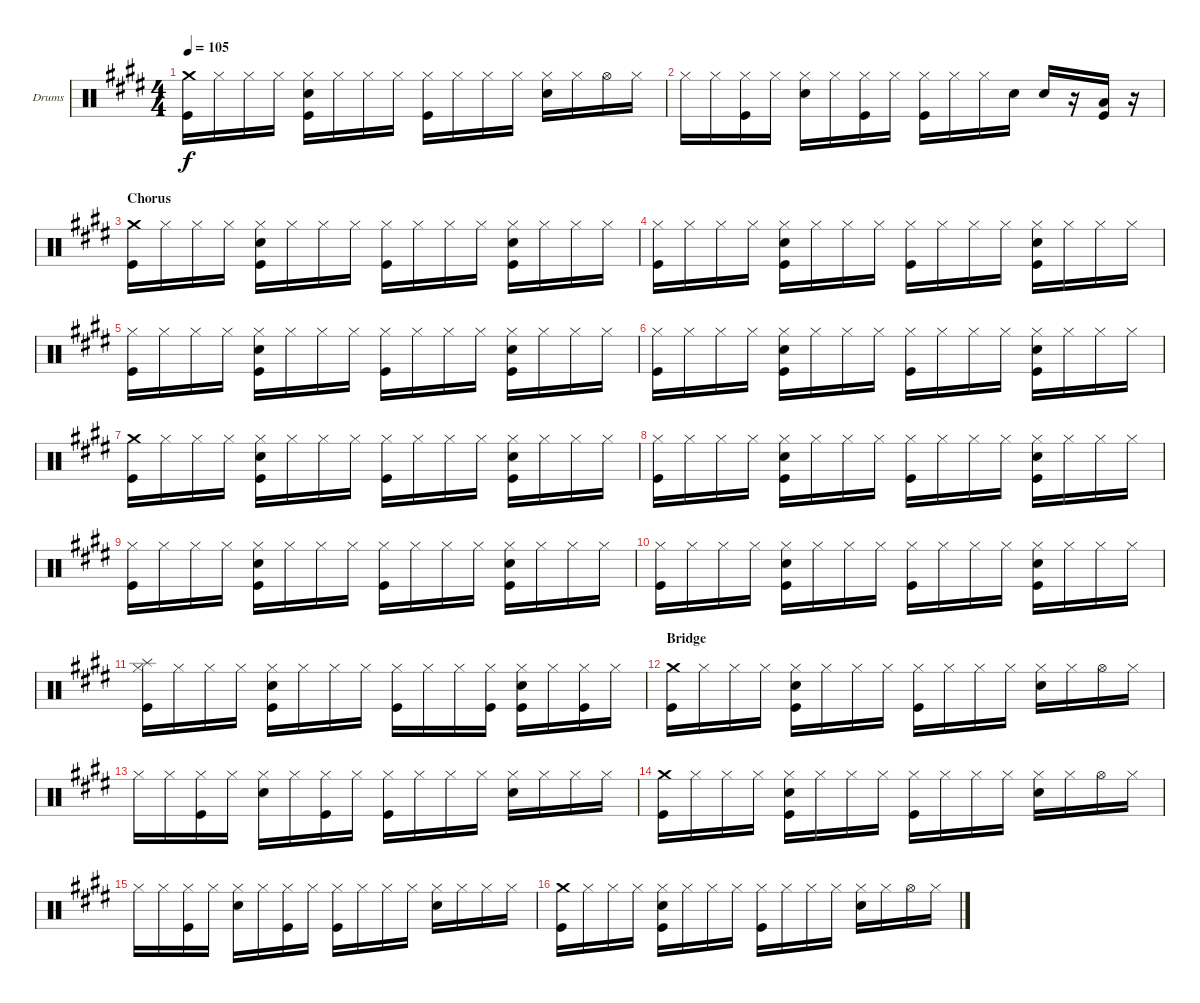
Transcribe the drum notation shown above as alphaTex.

\defaultSystemsLayout 4
\bracketExtendMode groupsimilarinstruments
\firstSystemTrackNameOrientation horizontal
\otherSystemsTrackNameOrientation horizontal
\track ("Drums" "Drums") {instrument percussion}
\staff {score}
\articulation defaults
\ts (4 4)
\tempo 105
\clef neutral
\ks e
("Kick (hit)" "Crash medium (hit)").16{dy f} "Hi-Hat (closed)".16 "Hi-Hat (closed)".16 "Hi-Hat (closed)".16 ("Snare (hit) 2" "Kick (hit)" "Hi-Hat (closed)").16 "Hi-Hat (closed)".16 "Hi-Hat (closed)".16 "Hi-Hat (closed)".16 ("Kick (hit)" "Hi-Hat (closed)").16 "Hi-Hat (closed)".16 "Hi-Hat (closed)".16 "Hi-Hat (closed)".16 ("Snare (hit) 2" "Hi-Hat (closed)").16 "Hi-Hat (closed)".16 "Hi-Hat (open)".16 "Hi-Hat (closed)".16 |
"Hi-Hat (closed)".16 "Hi-Hat (closed)".16 ("Kick (hit)" "Hi-Hat (closed)").16 "Hi-Hat (closed)".16 ("Snare (hit) 2" "Hi-Hat (closed)").16 "Hi-Hat (closed)".16 ("Kick (hit)" "Hi-Hat (closed)").16 "Hi-Hat (closed)".16 ("Kick (hit)" "Hi-Hat (closed)").16 "Hi-Hat (closed)".16 "Hi-Hat (closed)".16 "Snare (hit) 2".16 "Snare (hit) 2".16 r.16 ("Low Tom (hit)" "Kick (hit)").16 r.16 |
\section ("" "Chorus")
("Kick (hit)" "Crash medium (hit)").16 "Hi-Hat (closed)".16 "Hi-Hat (closed)".16 "Hi-Hat (closed)".16 ("Kick (hit)" "Snare (hit) 2" "Hi-Hat (closed)").16 "Hi-Hat (closed)".16 "Hi-Hat (closed)".16 "Hi-Hat (closed)".16 ("Kick (hit)" "Hi-Hat (closed)").16 "Hi-Hat (closed)".16 "Hi-Hat (closed)".16 "Hi-Hat (closed)".16 ("Kick (hit)" "Snare (hit) 2" "Hi-Hat (closed)").16 "Hi-Hat (closed)".16 "Hi-Hat (closed)".16 "Hi-Hat (closed)".16 |
("Kick (hit)" "Hi-Hat (closed)").16 "Hi-Hat (closed)".16 "Hi-Hat (closed)".16 "Hi-Hat (closed)".16 ("Kick (hit)" "Snare (hit) 2" "Hi-Hat (closed)").16 "Hi-Hat (closed)".16 "Hi-Hat (closed)".16 "Hi-Hat (closed)".16 ("Kick (hit)" "Hi-Hat (closed)").16 "Hi-Hat (closed)".16 "Hi-Hat (closed)".16 "Hi-Hat (closed)".16 ("Kick (hit)" "Snare (hit) 2" "Hi-Hat (closed)").16 "Hi-Hat (closed)".16 "Hi-Hat (closed)".16 "Hi-Hat (closed)".16 |
("Kick (hit)" "Hi-Hat (closed)").16 "Hi-Hat (closed)".16 "Hi-Hat (closed)".16 "Hi-Hat (closed)".16 ("Kick (hit)" "Snare (hit) 2" "Hi-Hat (closed)").16 "Hi-Hat (closed)".16 "Hi-Hat (closed)".16 "Hi-Hat (closed)".16 ("Kick (hit)" "Hi-Hat (closed)").16 "Hi-Hat (closed)".16 "Hi-Hat (closed)".16 "Hi-Hat (closed)".16 ("Kick (hit)" "Snare (hit) 2" "Hi-Hat (closed)").16 "Hi-Hat (closed)".16 "Hi-Hat (closed)".16 "Hi-Hat (closed)".16 |
("Kick (hit)" "Hi-Hat (closed)").16 "Hi-Hat (closed)".16 "Hi-Hat (closed)".16 "Hi-Hat (closed)".16 ("Kick (hit)" "Snare (hit) 2" "Hi-Hat (closed)").16 "Hi-Hat (closed)".16 "Hi-Hat (closed)".16 "Hi-Hat (closed)".16 ("Kick (hit)" "Hi-Hat (closed)").16 "Hi-Hat (closed)".16 "Hi-Hat (closed)".16 "Hi-Hat (closed)".16 ("Kick (hit)" "Snare (hit) 2" "Hi-Hat (closed)").16 "Hi-Hat (closed)".16 "Hi-Hat (closed)".16 "Hi-Hat (closed)".16 |
("Kick (hit)" "Crash medium (hit)").16 "Hi-Hat (closed)".16 "Hi-Hat (closed)".16 "Hi-Hat (closed)".16 ("Kick (hit)" "Snare (hit) 2" "Hi-Hat (closed)").16 "Hi-Hat (closed)".16 "Hi-Hat (closed)".16 "Hi-Hat (closed)".16 ("Kick (hit)" "Hi-Hat (closed)").16 "Hi-Hat (closed)".16 "Hi-Hat (closed)".16 "Hi-Hat (closed)".16 ("Kick (hit)" "Snare (hit) 2" "Hi-Hat (closed)").16 "Hi-Hat (closed)".16 "Hi-Hat (closed)".16 "Hi-Hat (closed)".16 |
("Kick (hit)" "Hi-Hat (closed)").16 "Hi-Hat (closed)".16 "Hi-Hat (closed)".16 "Hi-Hat (closed)".16 ("Kick (hit)" "Snare (hit) 2" "Hi-Hat (closed)").16 "Hi-Hat (closed)".16 "Hi-Hat (closed)".16 "Hi-Hat (closed)".16 ("Kick (hit)" "Hi-Hat (closed)").16 "Hi-Hat (closed)".16 "Hi-Hat (closed)".16 "Hi-Hat (closed)".16 ("Kick (hit)" "Snare (hit) 2" "Hi-Hat (closed)").16 "Hi-Hat (closed)".16 "Hi-Hat (closed)".16 "Hi-Hat (closed)".16 |
("Kick (hit)" "Hi-Hat (closed)").16 "Hi-Hat (closed)".16 "Hi-Hat (closed)".16 "Hi-Hat (closed)".16 ("Kick (hit)" "Snare (hit) 2" "Hi-Hat (closed)").16 "Hi-Hat (closed)".16 "Hi-Hat (closed)".16 "Hi-Hat (closed)".16 ("Kick (hit)" "Hi-Hat (closed)").16 "Hi-Hat (closed)".16 "Hi-Hat (closed)".16 "Hi-Hat (closed)".16 ("Kick (hit)" "Snare (hit) 2" "Hi-Hat (closed)").16 "Hi-Hat (closed)".16 "Hi-Hat (closed)".16 "Hi-Hat (closed)".16 |
("Kick (hit)" "Hi-Hat (closed)").16 "Hi-Hat (closed)".16 "Hi-Hat (closed)".16 "Hi-Hat (closed)".16 ("Kick (hit)" "Snare (hit) 2" "Hi-Hat (closed)").16 "Hi-Hat (closed)".16 "Hi-Hat (closed)".16 "Hi-Hat (closed)".16 ("Kick (hit)" "Hi-Hat (closed)").16 "Hi-Hat (closed)".16 "Hi-Hat (closed)".16 "Hi-Hat (closed)".16 ("Kick (hit)" "Snare (hit) 2" "Hi-Hat (closed)").16 "Hi-Hat (closed)".16 "Hi-Hat (closed)".16 "Hi-Hat (closed)".16 |
("Kick (hit)" "Hi-Hat (closed)" "Splash (hit)").16 "Hi-Hat (closed)".16 "Hi-Hat (closed)".16 "Hi-Hat (closed)".16 ("Kick (hit)" "Snare (hit) 2" "Hi-Hat (closed)").16 "Hi-Hat (closed)".16 "Hi-Hat (closed)".16 "Hi-Hat (closed)".16 ("Hi-Hat (closed)" "Kick (hit)").16 "Hi-Hat (closed)".16 "Hi-Hat (closed)".16 ("Kick (hit)" "Hi-Hat (closed)").16 ("Snare (hit) 2" "Kick (hit)" "Hi-Hat (closed)").16 "Hi-Hat (closed)".16 ("Kick (hit)" "Hi-Hat (closed)").16 "Hi-Hat (closed)".16 |
\section ("" "Bridge")
("Kick (hit)" "Crash medium (hit)").16 "Hi-Hat (closed)".16 "Hi-Hat (closed)".16 "Hi-Hat (closed)".16 ("Snare (hit) 2" "Kick (hit)" "Hi-Hat (closed)").16 "Hi-Hat (closed)".16 "Hi-Hat (closed)".16 "Hi-Hat (closed)".16 ("Kick (hit)" "Hi-Hat (closed)").16 "Hi-Hat (closed)".16 "Hi-Hat (closed)".16 "Hi-Hat (closed)".16 ("Snare (hit) 2" "Hi-Hat (closed)").16 "Hi-Hat (closed)".16 "Hi-Hat (open)".16 "Hi-Hat (closed)".16 |
"Hi-Hat (closed)".16 "Hi-Hat (closed)".16 ("Kick (hit)" "Hi-Hat (closed)").16 "Hi-Hat (closed)".16 ("Snare (hit) 2" "Hi-Hat (closed)").16 "Hi-Hat (closed)".16 ("Kick (hit)" "Hi-Hat (closed)").16 "Hi-Hat (closed)".16 ("Kick (hit)" "Hi-Hat (closed)").16 "Hi-Hat (closed)".16 "Hi-Hat (closed)".16 "Hi-Hat (closed)".16 ("Snare (hit) 2" "Hi-Hat (closed)").16 "Hi-Hat (closed)".16 "Hi-Hat (closed)".16 "Hi-Hat (closed)".16 |
("Kick (hit)" "Crash medium (hit)").16 "Hi-Hat (closed)".16 "Hi-Hat (closed)".16 "Hi-Hat (closed)".16 ("Snare (hit) 2" "Kick (hit)" "Hi-Hat (closed)").16 "Hi-Hat (closed)".16 "Hi-Hat (closed)".16 "Hi-Hat (closed)".16 ("Kick (hit)" "Hi-Hat (closed)").16 "Hi-Hat (closed)".16 "Hi-Hat (closed)".16 "Hi-Hat (closed)".16 ("Snare (hit) 2" "Hi-Hat (closed)").16 "Hi-Hat (closed)".16 "Hi-Hat (open)".16 "Hi-Hat (closed)".16 |
"Hi-Hat (closed)".16 "Hi-Hat (closed)".16 ("Kick (hit)" "Hi-Hat (closed)").16 "Hi-Hat (closed)".16 ("Snare (hit) 2" "Hi-Hat (closed)").16 "Hi-Hat (closed)".16 ("Kick (hit)" "Hi-Hat (closed)").16 "Hi-Hat (closed)".16 ("Kick (hit)" "Hi-Hat (closed)").16 "Hi-Hat (closed)".16 "Hi-Hat (closed)".16 "Hi-Hat (closed)".16 ("Snare (hit) 2" "Hi-Hat (closed)").16 "Hi-Hat (closed)".16 "Hi-Hat (closed)".16 "Hi-Hat (closed)".16 |
("Kick (hit)" "Crash medium (hit)").16 "Hi-Hat (closed)".16 "Hi-Hat (closed)".16 "Hi-Hat (closed)".16 ("Snare (hit) 2" "Kick (hit)" "Hi-Hat (closed)").16 "Hi-Hat (closed)".16 "Hi-Hat (closed)".16 "Hi-Hat (closed)".16 ("Kick (hit)" "Hi-Hat (closed)").16 "Hi-Hat (closed)".16 "Hi-Hat (closed)".16 "Hi-Hat (closed)".16 ("Snare (hit) 2" "Hi-Hat (closed)").16 "Hi-Hat (closed)".16 "Hi-Hat (open)".16 "Hi-Hat (closed)".16
